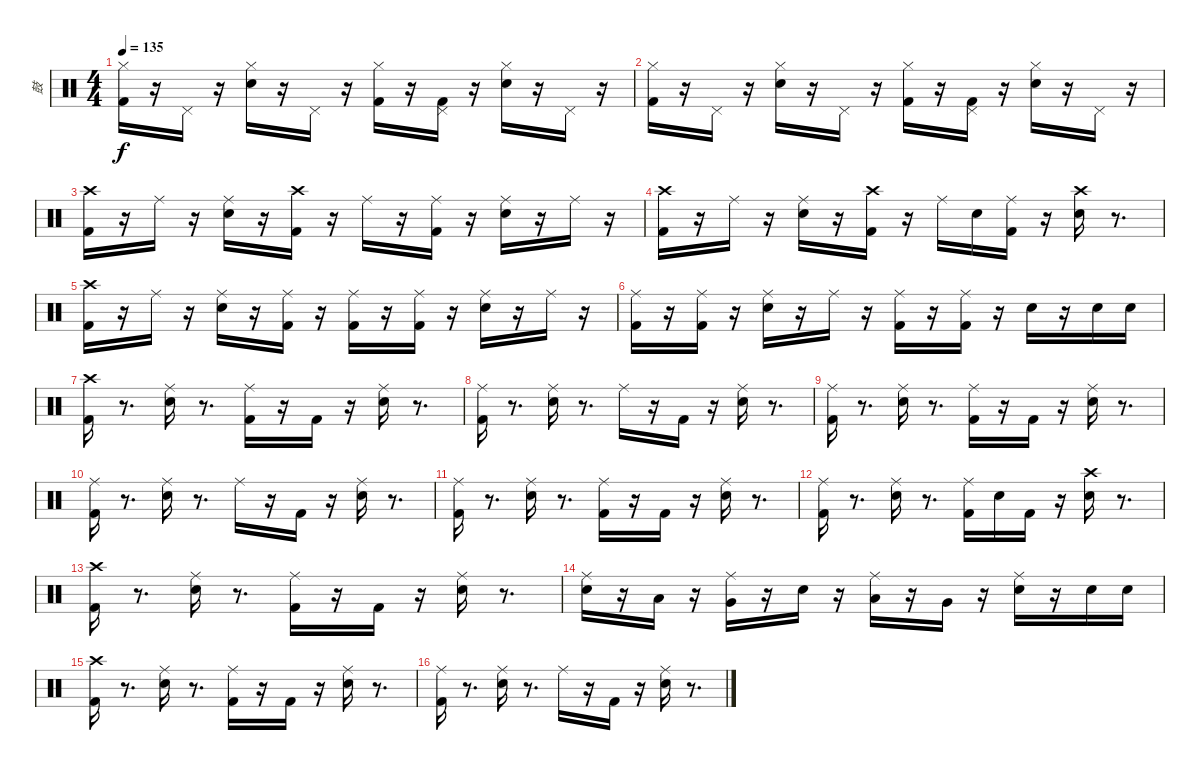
\track ("鼓" "鼓") {instrument percussion}
\staff {score}
\articulation defaults
\ts (4 4)
\tempo 135
\clef neutral
\ks c
("Hi-Hat (closed)" "Kick (hit) 2").16{dy f} r.16 "Pedal Hi-Hat (hit)".16 r.16 ("Electric Snare (hit)" "Hi-Hat (closed)").16 r.16 "Pedal Hi-Hat (hit)".16 r.16 ("Hi-Hat (closed)" "Kick (hit) 2").16 r.16 ("Pedal Hi-Hat (hit)" "Kick (hit) 2").16 r.16 ("Hi-Hat (closed)" "Electric Snare (hit)").16 r.16 "Pedal Hi-Hat (hit)".16 r.16 |
("Kick (hit) 2" "Hi-Hat (closed)").16 r.16 "Pedal Hi-Hat (hit)".16 r.16 ("Electric Snare (hit)" "Hi-Hat (closed)").16 r.16 "Pedal Hi-Hat (hit)".16 r.16 ("Kick (hit) 2" "Hi-Hat (closed)").16 r.16 ("Kick (hit) 2" "Pedal Hi-Hat (hit)").16 r.16 ("Electric Snare (hit)" "Hi-Hat (closed)").16 r.16 "Pedal Hi-Hat (hit)".16 r.16 |
("Crash high (hit)" "Kick (hit) 2").16 r.16 "Ride (middle)".16 r.16 ("Ride (middle)" "Electric Snare (hit)").16 r.16 ("Crash high (hit)" "Kick (hit) 2").16 r.16 "Ride (middle)".16 r.16 ("Ride (middle)" "Kick (hit) 2").16 r.16 ("Ride (middle)" "Electric Snare (hit)").16 r.16 "Ride (middle)".16 r.16 |
("Crash high (hit)" "Kick (hit) 2").16 r.16 "Ride (middle)".16 r.16 ("Electric Snare (hit)" "Ride (middle)").16 r.16 ("Kick (hit) 2" "Crash high (hit)").16 r.16 "Ride (middle)".16 "Electric Snare (hit)".16 ("Ride (middle)" "Kick (hit) 2").16 r.16 ("Crash high (hit)" "Electric Snare (hit)").16 r.8{d} |
("Crash high (hit)" "Kick (hit) 2").16 r.16 "Ride (middle)".16 r.16 ("Ride (middle)" "Electric Snare (hit)").16 r.16 ("Ride (middle)" "Kick (hit) 2").16 r.16 ("Ride (middle)" "Kick (hit) 2").16 r.16 ("Ride (middle)" "Kick (hit) 2").16 r.16 ("Ride (middle)" "Electric Snare (hit)").16 r.16 "Ride (middle)".16 r.16 |
("Ride (middle)" "Kick (hit) 2").16 r.16 ("Ride (middle)" "Kick (hit) 2").16 r.16 ("Ride (middle)" "Electric Snare (hit)").16 r.16 "Ride (middle)".16 r.16 ("Ride (middle)" "Kick (hit) 2").16 r.16 ("Ride (middle)" "Kick (hit) 2").16 r.16 "Electric Snare (hit)".16 r.16 "Electric Snare (hit)".16 "Electric Snare (hit)".16 |
("Crash high (hit)" "Kick (hit) 2").16 r.8{d} ("Ride (middle)" "Electric Snare (hit)").16 r.8{d} ("Ride (middle)" "Kick (hit) 2").16 r.16 "Kick (hit) 2".16 r.16 ("Ride (middle)" "Electric Snare (hit)").16 r.8{d} |
("Ride (middle)" "Kick (hit) 2").16 r.8{d} ("Ride (middle)" "Electric Snare (hit)").16 r.8{d} "Ride (middle)".16 r.16 "Kick (hit) 2".16 r.16 ("Ride (middle)" "Electric Snare (hit)").16 r.8{d} |
("Ride (middle)" "Kick (hit) 2").16 r.8{d} ("Ride (middle)" "Electric Snare (hit)").16 r.8{d} ("Ride (middle)" "Kick (hit) 2").16 r.16 "Kick (hit) 2".16 r.16 ("Ride (middle)" "Electric Snare (hit)").16 r.8{d} |
("Ride (middle)" "Kick (hit) 2").16 r.8{d} ("Ride (middle)" "Electric Snare (hit)").16 r.8{d} "Ride (middle)".16 r.16 "Kick (hit) 2".16 r.16 ("Ride (middle)" "Electric Snare (hit)").16 r.8{d} |
("Ride (middle)" "Kick (hit) 2").16 r.8{d} ("Ride (middle)" "Electric Snare (hit)").16 r.8{d} ("Ride (middle)" "Kick (hit) 2").16 r.16 "Kick (hit) 2".16 r.16 ("Ride (middle)" "Electric Snare (hit)").16 r.8{d} |
("Ride (middle)" "Kick (hit) 2").16 r.8{d} ("Ride (middle)" "Electric Snare (hit)").16 r.8{d} ("Ride (middle)" "Kick (hit) 2").16 "Electric Snare (hit)".16 "Kick (hit) 2".16 r.16 ("Crash high (hit)" "Electric Snare (hit)").16 r.8{d} |
("Crash high (hit)" "Kick (hit) 2").16 r.8{d} ("Ride (middle)" "Electric Snare (hit)").16 r.8{d} ("Ride (middle)" "Kick (hit) 2").16 r.16 "Kick (hit) 2".16 r.16 ("Ride (middle)" "Electric Snare (hit)").16 r.8{d} |
("Ride (middle)" "Electric Snare (hit)").16 r.16 "Low Tom (hit)".16 r.16 ("Ride (middle)" "Very Low Tom (hit)").16 r.16 "Electric Snare (hit)".16 r.16 ("Ride (middle)" "Low Tom (hit)").16 r.16 "Very Low Tom (hit)".16 r.16 ("Ride (middle)" "Electric Snare (hit)").16 r.16 "Electric Snare (hit)".16 "Electric Snare (hit)".16 |
("Crash high (hit)" "Kick (hit) 2").16 r.8{d} ("Ride (middle)" "Electric Snare (hit)").16 r.8{d} ("Ride (middle)" "Kick (hit) 2").16 r.16 "Kick (hit) 2".16 r.16 ("Ride (middle)" "Electric Snare (hit)").16 r.8{d} |
("Ride (middle)" "Kick (hit) 2").16 r.8{d} ("Ride (middle)" "Electric Snare (hit)").16 r.8{d} "Ride (middle)".16 r.16 "Kick (hit) 2".16 r.16 ("Ride (middle)" "Electric Snare (hit)").16 r.8{d}
